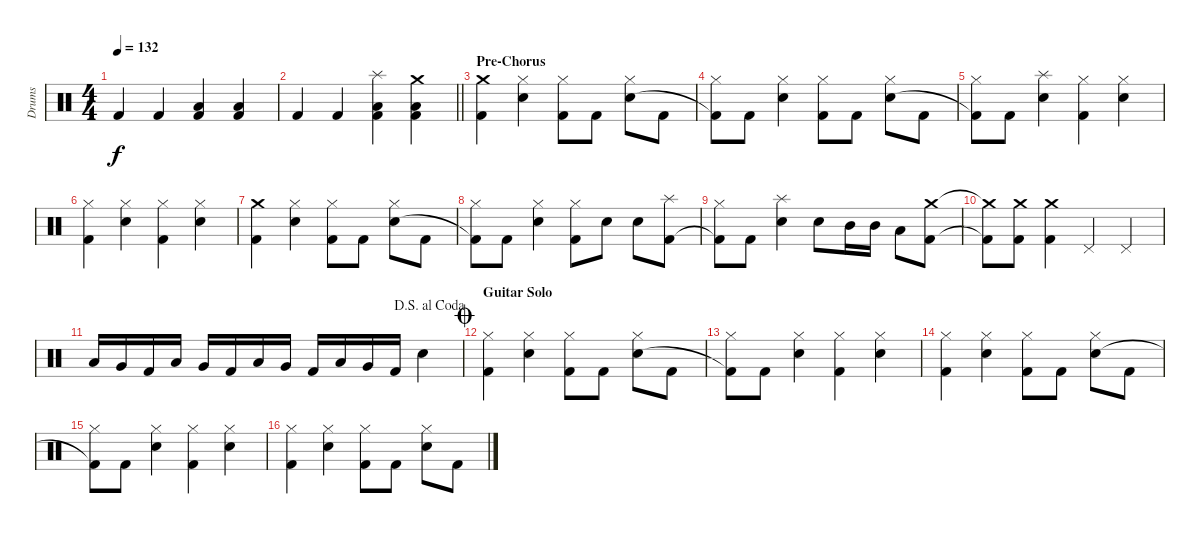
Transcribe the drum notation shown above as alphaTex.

\track ("Drums" "Drums") {instrument percussion}
\staff {score}
\articulation defaults
\ts (4 4)
\tempo 132
\clef neutral
\ks c "Kick (hit) 2".4{dy f} "Kick (hit) 2".4
("Low Tom (hit)" "Kick (hit) 2").4 ("Low Floor Tom (hit)" "Kick (hit) 2").4 |
\barLineRight lightlight "Kick (hit) 2".4 "Kick (hit) 2".4
("Splash (hit)" "Low Tom (hit)" "Kick (hit) 2").4 ("Crash medium (hit)" "Low Floor Tom (hit)" "Kick (hit) 2").4 |
\section ("" "Pre-Chorus")
("Crash medium (hit)" "Kick (hit) 2").4 ("Hi-Hat (closed)" "Snare (hit) 2").4 ("Hi-Hat (closed)" "Kick (hit) 2").8 "Kick (hit) 2".8 ("Hi-Hat (closed)" "Snare (hit) 2").8 "Kick (hit) 2".8 |
("Hi-Hat (closed)" "Kick (hit) 2"{t}).8 "Kick (hit) 2".8 ("Hi-Hat (closed)" "Snare (hit) 2").4 ("Hi-Hat (closed)" "Kick (hit) 2").8 "Kick (hit) 2".8 ("Hi-Hat (closed)" "Snare (hit) 2").8 "Kick (hit) 2".8 |
("Hi-Hat (closed)" "Kick (hit) 2"{t}).8 "Kick (hit) 2".8 ("Splash (hit)" "Snare (hit) 2").4 ("Hi-Hat (closed)" "Kick (hit) 2").4 ("Hi-Hat (closed)" "Snare (hit) 2").4 |
("Hi-Hat (closed)" "Kick (hit) 2").4 ("Hi-Hat (closed)" "Snare (hit) 2").4 ("Hi-Hat (closed)" "Kick (hit) 2").4 ("Hi-Hat (closed)" "Snare (hit) 2").4 |
("Crash medium (hit)" "Kick (hit) 2").4 ("Hi-Hat (closed)" "Snare (hit) 2").4 ("Hi-Hat (closed)" "Kick (hit) 2").8 "Kick (hit) 2".8 ("Hi-Hat (closed)" "Snare (hit) 2").8 "Kick (hit) 2".8 |
("Hi-Hat (closed)" "Kick (hit) 2"{t}).8 "Kick (hit) 2".8 ("Hi-Hat (closed)" "Snare (hit) 2").4 ("Hi-Hat (closed)" "Kick (hit) 2").8 "Snare (hit) 2".8 "Snare (hit) 2".8 ("Splash (hit)" "Kick (hit) 2").8 |
("Hi-Hat (closed)" "Kick (hit) 2"{t}).8 "Kick (hit) 2".8 ("Splash (hit)" "Snare (hit) 2").4 "Snare (hit) 2".8 "Mid Tom (hit)".16 "Mid Tom (hit)".16 "Low Tom (hit)".8 ("Crash medium (hit)" "Kick (hit) 2").8 |
("Crash medium (hit)"{t} "Kick (hit) 2"{t}).8 ("Crash medium (hit)" "Kick (hit) 2").8 ("Crash medium (hit)" "Kick (hit) 2").4 "Pedal Hi-Hat (hit)".4 "Pedal Hi-Hat (hit)".4 |
\jump dalsegnoalcoda "Low Floor Tom (hit)".16 "Very Low Tom (hit)".16 "Kick (hit) 2".16 "Low Floor Tom (hit)".16 "Very Low Tom (hit)".16 "Kick (hit) 2".16 "Low Floor Tom (hit)".16 "Very Low Tom (hit)".16 "Kick (hit) 2".16 "Low Floor Tom (hit)".16 "Very Low Tom (hit)".16 "Kick (hit) 2".16 "Snare (hit) 2".4
|
\section ("" "Guitar Solo")
\jump coda
("Hi-Hat (closed)" "Kick (hit) 2").4 ("Hi-Hat (closed)" "Snare (hit) 2").4 ("Hi-Hat (closed)" "Kick (hit) 2").8 "Kick (hit) 2".8 ("Hi-Hat (closed)" "Snare (hit) 2").8 "Kick (hit) 2".8 |
("Hi-Hat (closed)" "Kick (hit) 2"{t}).8 "Kick (hit) 2".8 ("Hi-Hat (closed)" "Snare (hit) 2").4 ("Hi-Hat (closed)" "Kick (hit) 2").4 ("Hi-Hat (closed)" "Snare (hit) 2").4 |
("Hi-Hat (closed)" "Kick (hit) 2").4 ("Hi-Hat (closed)" "Snare (hit) 2").4 ("Hi-Hat (closed)" "Kick (hit) 2").8 "Kick (hit) 2".8 ("Hi-Hat (closed)" "Snare (hit) 2").8 "Kick (hit) 2".8 |
("Hi-Hat (closed)" "Kick (hit) 2"{t}).8 "Kick (hit) 2".8 ("Hi-Hat (closed)" "Snare (hit) 2").4 ("Hi-Hat (closed)" "Kick (hit) 2").4 ("Hi-Hat (closed)" "Snare (hit) 2").4 |
("Hi-Hat (closed)" "Kick (hit) 2").4 ("Hi-Hat (closed)" "Snare (hit) 2").4 ("Hi-Hat (closed)" "Kick (hit) 2").8 "Kick (hit) 2".8 ("Hi-Hat (closed)" "Snare (hit) 2").8 "Kick (hit) 2".8
